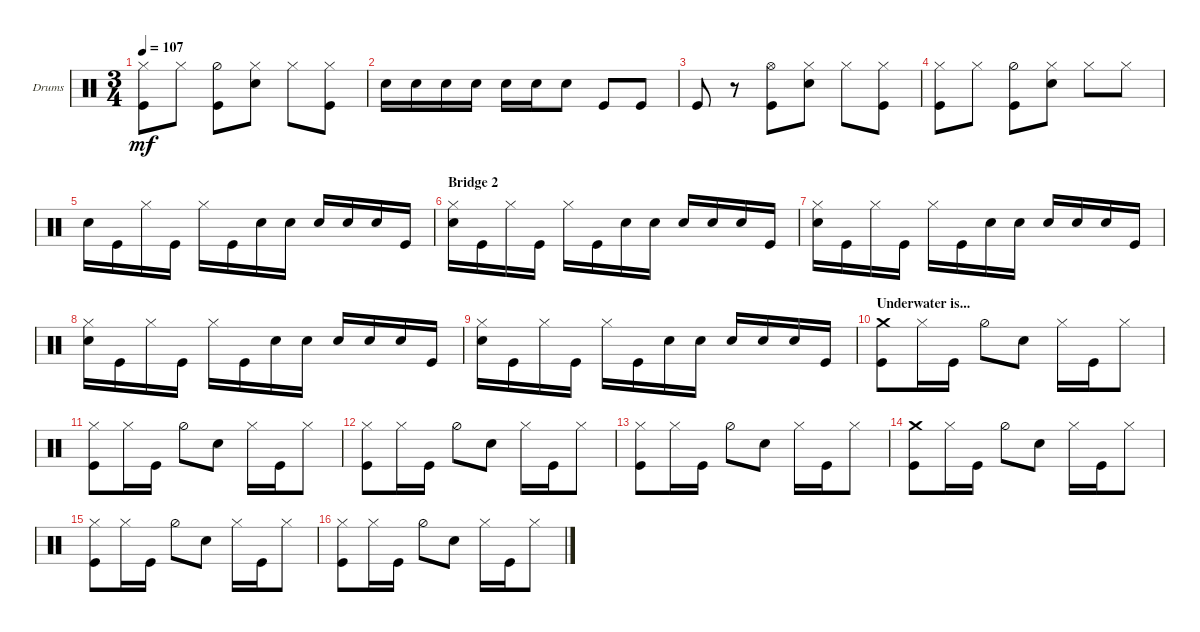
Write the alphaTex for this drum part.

\defaultSystemsLayout 4
\bracketExtendMode groupsimilarinstruments
\firstSystemTrackNameOrientation horizontal
\otherSystemsTrackNameOrientation horizontal
\track ("Drumkit" "Drums") {instrument percussion}
\staff {score}
\articulation defaults
\ts (3 4)
\tempo 107
\clef neutral
\ks c
("Hi-Hat (closed)" "Kick (hit)").8{dy mf} "Hi-Hat (closed)".8 ("Hi-Hat (half)" "Kick (hit)").8 ("Hi-Hat (closed)" "Snare (hit) 2").8 "Hi-Hat (closed)".8 ("Hi-Hat (closed)" "Kick (hit)").8 |
"Snare (hit) 2".16 "Snare (hit) 2".16 "Snare (hit) 2".16 "Snare (hit) 2".16 "Snare (hit) 2".16 "Snare (hit) 2".16 "Snare (hit) 2".8 "Kick (hit)".8 "Kick (hit)".8 |
"Kick (hit)".8 r.8 ("Hi-Hat (open)" "Kick (hit)").8 ("Snare (hit) 2" "Hi-Hat (closed)").8 "Hi-Hat (closed)".8 ("Hi-Hat (closed)" "Kick (hit)").8 |
("Hi-Hat (closed)" "Kick (hit)").8 "Hi-Hat (closed)".8 ("Hi-Hat (half)" "Kick (hit)").8 ("Hi-Hat (closed)" "Snare (hit) 2").8 "Hi-Hat (closed)".8 "Hi-Hat (closed)".8 |
"Snare (hit) 2".16 "Kick (hit)".16 "Hi-Hat (closed)".16 "Kick (hit)".16 "Hi-Hat (closed)".16 "Kick (hit)".16 "Snare (hit) 2".16 "Snare (hit) 2".16 "Snare (hit) 2".16 "Snare (hit) 2".16 "Snare (hit) 2".16 "Kick (hit)".16 |
\section ("" "Bridge 2")
("Snare (hit) 2" "Hi-Hat (closed)").16 "Kick (hit)".16 "Hi-Hat (closed)".16 "Kick (hit)".16 "Hi-Hat (closed)".16 "Kick (hit)".16 "Snare (hit) 2".16 "Snare (hit) 2".16 "Snare (hit) 2".16 "Snare (hit) 2".16 "Snare (hit) 2".16 "Kick (hit)".16 |
("Snare (hit) 2" "Hi-Hat (closed)").16 "Kick (hit)".16 "Hi-Hat (closed)".16 "Kick (hit)".16 "Hi-Hat (closed)".16 "Kick (hit)".16 "Snare (hit) 2".16 "Snare (hit) 2".16 "Snare (hit) 2".16 "Snare (hit) 2".16 "Snare (hit) 2".16 "Kick (hit)".16 |
("Snare (hit) 2" "Hi-Hat (closed)").16 "Kick (hit)".16 "Hi-Hat (closed)".16 "Kick (hit)".16 "Hi-Hat (closed)".16 "Kick (hit)".16 "Snare (hit) 2".16 "Snare (hit) 2".16 "Snare (hit) 2".16 "Snare (hit) 2".16 "Snare (hit) 2".16 "Kick (hit)".16 |
("Snare (hit) 2" "Hi-Hat (closed)").16 "Kick (hit)".16 "Hi-Hat (closed)".16 "Kick (hit)".16 "Hi-Hat (closed)".16 "Kick (hit)".16 "Snare (hit) 2".16 "Snare (hit) 2".16 "Snare (hit) 2".16 "Snare (hit) 2".16 "Snare (hit) 2".16 "Kick (hit)".16 |
\section ("" "Underwater is...")
("Crash medium (hit)" "Kick (hit)").8 "Hi-Hat (closed)".16 "Kick (hit)".16 "Hi-Hat (half)".8 "Snare (hit) 2".8 "Hi-Hat (closed)".16 "Kick (hit)".16 "Hi-Hat (closed)".8 |
("Hi-Hat (closed)" "Kick (hit)").8 "Hi-Hat (closed)".16 "Kick (hit)".16 "Hi-Hat (half)".8 "Snare (hit) 2".8 "Hi-Hat (closed)".16 "Kick (hit)".16 "Hi-Hat (closed)".8 |
("Hi-Hat (closed)" "Kick (hit)").8 "Hi-Hat (closed)".16 "Kick (hit)".16 "Hi-Hat (half)".8 "Snare (hit) 2".8 "Hi-Hat (closed)".16 "Kick (hit)".16 "Hi-Hat (closed)".8 |
("Hi-Hat (closed)" "Kick (hit)").8 "Hi-Hat (closed)".16 "Kick (hit)".16 "Hi-Hat (half)".8 "Snare (hit) 2".8 "Hi-Hat (closed)".16 "Kick (hit)".16 "Hi-Hat (closed)".8 |
("Crash medium (hit)" "Kick (hit)").8 "Hi-Hat (closed)".16 "Kick (hit)".16 "Hi-Hat (half)".8 "Snare (hit) 2".8 "Hi-Hat (closed)".16 "Kick (hit)".16 "Hi-Hat (closed)".8 |
("Hi-Hat (closed)" "Kick (hit)").8 "Hi-Hat (closed)".16 "Kick (hit)".16 "Hi-Hat (half)".8 "Snare (hit) 2".8 "Hi-Hat (closed)".16 "Kick (hit)".16 "Hi-Hat (closed)".8 |
("Hi-Hat (closed)" "Kick (hit)").8 "Hi-Hat (closed)".16 "Kick (hit)".16 "Hi-Hat (half)".8 "Snare (hit) 2".8 "Hi-Hat (closed)".16 "Kick (hit)".16 "Hi-Hat (closed)".8
